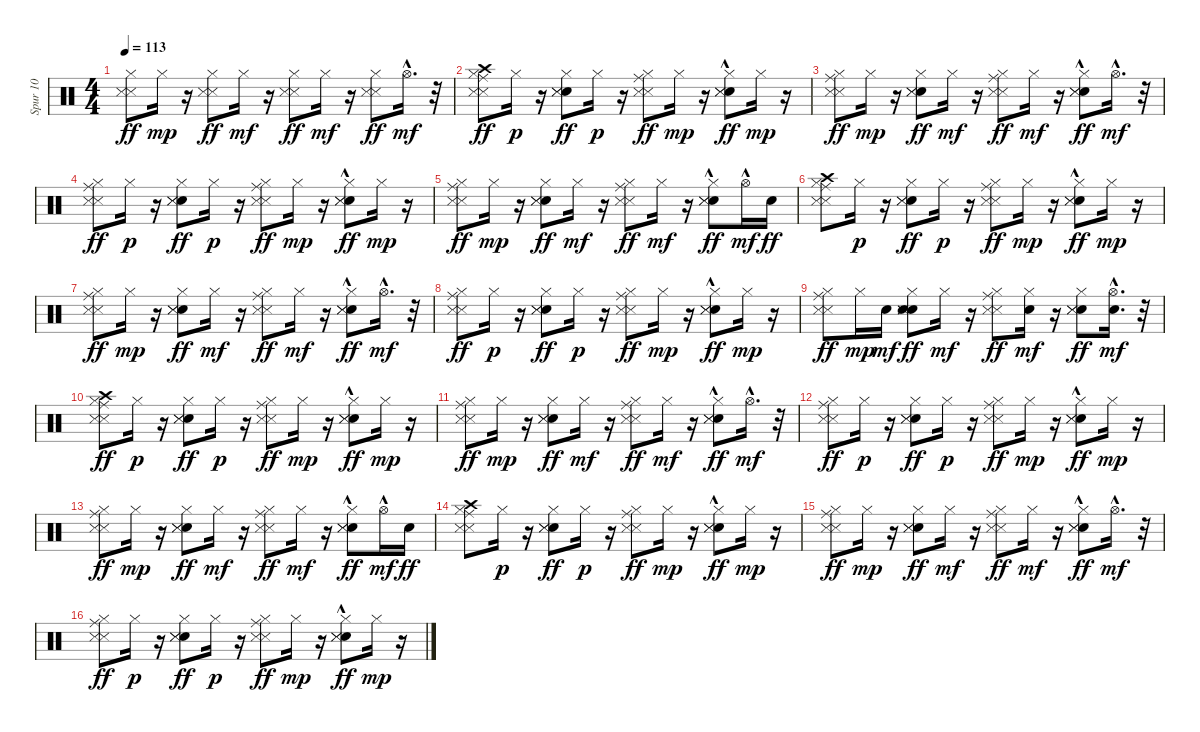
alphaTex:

\track ("Spur 10" "Spur 10") {instrument percussion}
\staff {score}
\articulation defaults
\ts (4 4)
\tempo 113
\clef neutral
\ks c
("Hi-Hat (closed)" "Snare (side stick) 3" "Snare (side stick) 3").8{dy ff} "Hi-Hat (closed)".16{dy mp} r.16 ("Hi-Hat (closed)" "Snare (side stick) 3" "Snare (side stick) 3").8{dy ff} "Hi-Hat (closed)".16{dy mf} r.16 ("Hi-Hat (closed)" "Snare (side stick) 3" "Snare (side stick) 3").8{dy ff} "Hi-Hat (closed)".16{dy mf} r.16 ("Snare (side stick) 3" "Snare (side stick) 3" "Hi-Hat (closed)").8{dy ff} "Hi-Hat (open)"{hac}.16{d dy mf} r.32 |
("Ride (middle)" "Crash high (hit)" "Hi-Hat (closed)" "Snare (side stick) 3" "Snare (side stick) 3").8{dy ff} "Hi-Hat (closed)".16{dy p} r.16 ("Hi-Hat (closed)" "Metronome (bell)" "Snare (side stick) 3" "Snare (side stick) 3").8{dy ff} "Hi-Hat (closed)".16{dy p} r.16 ("Hi-Hat (closed)" "Ride (middle)" "Snare (side stick) 3" "Snare (side stick) 3").8{dy ff} "Hi-Hat (closed)".16{dy mp} r.16 ("Hi-Hat (closed)" "Metronome (bell)"{hac} "Snare (side stick) 3" "Snare (side stick) 3").8{dy ff} "Hi-Hat (closed)".16{dy mp} r.16 |
("Hi-Hat (closed)" "Ride (middle)" "Snare (side stick) 3" "Snare (side stick) 3").8{dy ff} "Hi-Hat (closed)".16{dy mp} r.16 ("Hi-Hat (closed)" "Metronome (bell)" "Snare (side stick) 3" "Snare (side stick) 3").8{dy ff} "Hi-Hat (closed)".16{dy mf} r.16 ("Hi-Hat (closed)" "Ride (middle)" "Snare (side stick) 3" "Snare (side stick) 3").8{dy ff} "Hi-Hat (closed)".16{dy mf} r.16 ("Metronome (bell)"{hac} "Snare (side stick) 3" "Snare (side stick) 3" "Hi-Hat (closed)").8{dy ff} "Hi-Hat (open)"{hac}.16{d dy mf} r.32 |
("Ride (middle)" "Hi-Hat (closed)" "Snare (side stick) 3" "Snare (side stick) 3").8{dy ff} "Hi-Hat (closed)".16{dy p} r.16 ("Hi-Hat (closed)" "Metronome (bell)" "Snare (side stick) 3" "Snare (side stick) 3").8{dy ff} "Hi-Hat (closed)".16{dy p} r.16 ("Hi-Hat (closed)" "Ride (middle)" "Snare (side stick) 3" "Snare (side stick) 3").8{dy ff} "Hi-Hat (closed)".16{dy mp} r.16 ("Hi-Hat (closed)" "Metronome (bell)"{hac} "Snare (side stick) 3" "Snare (side stick) 3").8{dy ff} "Hi-Hat (closed)".16{dy mp} r.16 |
("Hi-Hat (closed)" "Ride (middle)" "Snare (side stick) 3" "Snare (side stick) 3").8{dy ff} "Hi-Hat (closed)".16{dy mp} r.16 ("Hi-Hat (closed)" "Metronome (bell)" "Snare (side stick) 3" "Snare (side stick) 3").8{dy ff} "Hi-Hat (closed)".16{dy mf} r.16 ("Hi-Hat (closed)" "Ride (middle)" "Snare (side stick) 3" "Snare (side stick) 3").8{dy ff} "Hi-Hat (closed)".16{dy mf} r.16 ("Metronome (bell)"{hac} "Snare (side stick) 3" "Snare (side stick) 3" "Hi-Hat (closed)").8{dy ff} "Hi-Hat (open)"{hac}.16{dy mf} "Metronome (bell)".16{dy ff} |
("Ride (middle)" "Hi-Hat (closed)" "Snare (side stick) 3" "Snare (side stick) 3" "Crash high (hit)").8 "Hi-Hat (closed)".16{dy p} r.16 ("Hi-Hat (closed)" "Metronome (bell)" "Snare (side stick) 3" "Snare (side stick) 3").8{dy ff} "Hi-Hat (closed)".16{dy p} r.16 ("Hi-Hat (closed)" "Ride (middle)" "Snare (side stick) 3" "Snare (side stick) 3").8{dy ff} "Hi-Hat (closed)".16{dy mp} r.16 ("Hi-Hat (closed)" "Metronome (bell)"{hac} "Snare (side stick) 3" "Snare (side stick) 3").8{dy ff} "Hi-Hat (closed)".16{dy mp} r.16 |
("Hi-Hat (closed)" "Ride (middle)" "Snare (side stick) 3" "Snare (side stick) 3").8{dy ff} "Hi-Hat (closed)".16{dy mp} r.16 ("Hi-Hat (closed)" "Metronome (bell)" "Snare (side stick) 3" "Snare (side stick) 3").8{dy ff} "Hi-Hat (closed)".16{dy mf} r.16 ("Hi-Hat (closed)" "Ride (middle)" "Snare (side stick) 3" "Snare (side stick) 3").8{dy ff} "Hi-Hat (closed)".16{dy mf} r.16 ("Metronome (bell)"{hac} "Snare (side stick) 3" "Snare (side stick) 3" "Hi-Hat (closed)").8{dy ff} "Hi-Hat (open)"{hac}.16{d dy mf} r.32 |
("Ride (middle)" "Hi-Hat (closed)" "Snare (side stick) 3" "Snare (side stick) 3").8{dy ff} "Hi-Hat (closed)".16{dy p} r.16 ("Hi-Hat (closed)" "Metronome (bell)" "Snare (side stick) 3" "Snare (side stick) 3").8{dy ff} "Hi-Hat (closed)".16{dy p} r.16 ("Hi-Hat (closed)" "Ride (middle)" "Snare (side stick) 3" "Snare (side stick) 3").8{dy ff} "Hi-Hat (closed)".16{dy mp} r.16 ("Hi-Hat (closed)" "Metronome (bell)"{hac} "Snare (side stick) 3" "Snare (side stick) 3").8{dy ff} "Hi-Hat (closed)".16{dy mp} r.16 |
("Hi-Hat (closed)" "Ride (middle)" "Snare (side stick) 3" "Snare (side stick) 3").8{dy ff} "Hi-Hat (closed)".16{dy mp} "Metronome (bell)".16{dy mf} ("Hi-Hat (closed)" "Metronome (bell)" "Metronome (bell)" "Snare (side stick) 3" "Snare (side stick) 3").8{dy ff} "Hi-Hat (closed)".16{dy mf} r.16 ("Hi-Hat (closed)" "Ride (middle)" "Snare (side stick) 3" "Snare (side stick) 3").8{dy ff} ("Metronome (bell)" "Hi-Hat (closed)").16{dy mf} r.16 ("Metronome (bell)" "Snare (side stick) 3" "Snare (side stick) 3" "Hi-Hat (closed)").8{dy ff} ("Metronome (bell)" "Hi-Hat (open)"{hac}).16{d dy mf} r.32 |
("Ride (middle)" "Crash high (hit)" "Hi-Hat (closed)" "Snare (side stick) 3" "Snare (side stick) 3").8{dy ff} "Hi-Hat (closed)".16{dy p} r.16 ("Hi-Hat (closed)" "Metronome (bell)" "Snare (side stick) 3" "Snare (side stick) 3").8{dy ff} "Hi-Hat (closed)".16{dy p} r.16 ("Hi-Hat (closed)" "Ride (middle)" "Snare (side stick) 3" "Snare (side stick) 3").8{dy ff} "Hi-Hat (closed)".16{dy mp} r.16 ("Hi-Hat (closed)" "Metronome (bell)"{hac} "Snare (side stick) 3" "Snare (side stick) 3").8{dy ff} "Hi-Hat (closed)".16{dy mp} r.16 |
("Hi-Hat (closed)" "Ride (middle)" "Snare (side stick) 3" "Snare (side stick) 3").8{dy ff} "Hi-Hat (closed)".16{dy mp} r.16 ("Hi-Hat (closed)" "Metronome (bell)" "Snare (side stick) 3" "Snare (side stick) 3").8{dy ff} "Hi-Hat (closed)".16{dy mf} r.16 ("Hi-Hat (closed)" "Ride (middle)" "Snare (side stick) 3" "Snare (side stick) 3").8{dy ff} "Hi-Hat (closed)".16{dy mf} r.16 ("Metronome (bell)"{hac} "Snare (side stick) 3" "Snare (side stick) 3" "Hi-Hat (closed)").8{dy ff} "Hi-Hat (open)"{hac}.16{d dy mf} r.32 |
("Ride (middle)" "Hi-Hat (closed)" "Snare (side stick) 3" "Snare (side stick) 3").8{dy ff} "Hi-Hat (closed)".16{dy p} r.16 ("Hi-Hat (closed)" "Metronome (bell)" "Snare (side stick) 3" "Snare (side stick) 3").8{dy ff} "Hi-Hat (closed)".16{dy p} r.16 ("Hi-Hat (closed)" "Ride (middle)" "Snare (side stick) 3" "Snare (side stick) 3").8{dy ff} "Hi-Hat (closed)".16{dy mp} r.16 ("Hi-Hat (closed)" "Metronome (bell)"{hac} "Snare (side stick) 3" "Snare (side stick) 3").8{dy ff} "Hi-Hat (closed)".16{dy mp} r.16 |
("Hi-Hat (closed)" "Ride (middle)" "Snare (side stick) 3" "Snare (side stick) 3").8{dy ff} "Hi-Hat (closed)".16{dy mp} r.16 ("Hi-Hat (closed)" "Metronome (bell)" "Snare (side stick) 3" "Snare (side stick) 3").8{dy ff} "Hi-Hat (closed)".16{dy mf} r.16 ("Hi-Hat (closed)" "Ride (middle)" "Snare (side stick) 3" "Snare (side stick) 3").8{dy ff} "Hi-Hat (closed)".16{dy mf} r.16 ("Metronome (bell)"{hac} "Snare (side stick) 3" "Snare (side stick) 3" "Hi-Hat (closed)").8{dy ff} "Hi-Hat (open)"{hac}.16{dy mf} "Metronome (bell)".16{dy ff} |
("Ride (middle)" "Hi-Hat (closed)" "Snare (side stick) 3" "Snare (side stick) 3" "Crash high (hit)").8 "Hi-Hat (closed)".16{dy p} r.16 ("Hi-Hat (closed)" "Metronome (bell)" "Snare (side stick) 3" "Snare (side stick) 3").8{dy ff} "Hi-Hat (closed)".16{dy p} r.16 ("Hi-Hat (closed)" "Ride (middle)" "Snare (side stick) 3" "Snare (side stick) 3").8{dy ff} "Hi-Hat (closed)".16{dy mp} r.16 ("Hi-Hat (closed)" "Metronome (bell)"{hac} "Snare (side stick) 3" "Snare (side stick) 3").8{dy ff} "Hi-Hat (closed)".16{dy mp} r.16 |
("Hi-Hat (closed)" "Ride (middle)" "Snare (side stick) 3" "Snare (side stick) 3").8{dy ff} "Hi-Hat (closed)".16{dy mp} r.16 ("Hi-Hat (closed)" "Metronome (bell)" "Snare (side stick) 3" "Snare (side stick) 3").8{dy ff} "Hi-Hat (closed)".16{dy mf} r.16 ("Hi-Hat (closed)" "Ride (middle)" "Snare (side stick) 3" "Snare (side stick) 3").8{dy ff} "Hi-Hat (closed)".16{dy mf} r.16 ("Metronome (bell)"{hac} "Snare (side stick) 3" "Snare (side stick) 3" "Hi-Hat (closed)").8{dy ff} "Hi-Hat (open)"{hac}.16{d dy mf} r.32 |
("Ride (middle)" "Hi-Hat (closed)" "Snare (side stick) 3" "Snare (side stick) 3").8{dy ff} "Hi-Hat (closed)".16{dy p} r.16 ("Hi-Hat (closed)" "Metronome (bell)" "Snare (side stick) 3" "Snare (side stick) 3").8{dy ff} "Hi-Hat (closed)".16{dy p} r.16 ("Hi-Hat (closed)" "Ride (middle)" "Snare (side stick) 3" "Snare (side stick) 3").8{dy ff} "Hi-Hat (closed)".16{dy mp} r.16 ("Hi-Hat (closed)" "Metronome (bell)"{hac} "Snare (side stick) 3" "Snare (side stick) 3").8{dy ff} "Hi-Hat (closed)".16{dy mp} r.16
